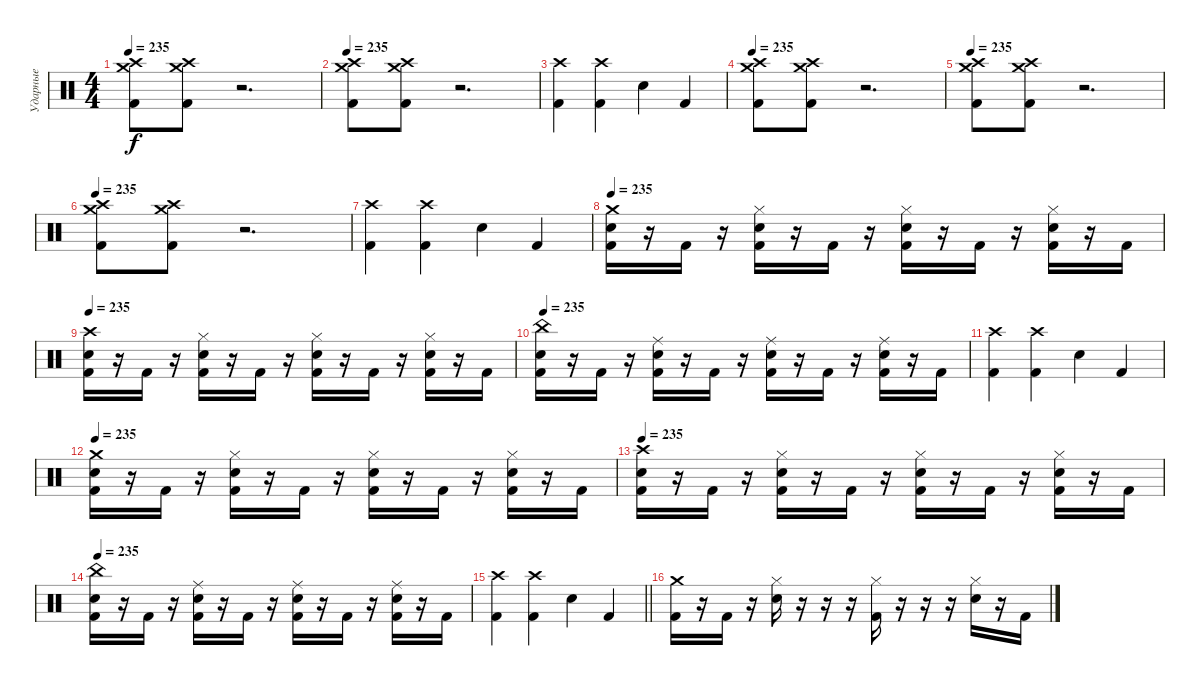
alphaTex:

\track ("Ударные" "Ударные") {instrument percussion}
\staff {score}
\articulation defaults
\ts (4 4)
\tempo 235
\clef neutral
\ks c
("Crash medium (hit)" "Crash high (hit)" "Kick (hit) 2").8{dy f} ("Crash medium (hit)" "Crash high (hit)" "Kick (hit) 2").8 r.2{d} |
\tempo 235
("Crash medium (hit)" "Crash high (hit)" "Kick (hit) 2").8 ("Crash medium (hit)" "Crash high (hit)" "Kick (hit) 2").8 r.2{d} |
("Crash high (hit)" "Kick (hit) 2").4 ("Crash high (hit)" "Kick (hit) 2").4 "Snare (hit) 2".4 "Kick (hit) 2".4 |
\tempo 235
("Crash medium (hit)" "Crash high (hit)" "Kick (hit) 2").8 ("Crash medium (hit)" "Crash high (hit)" "Kick (hit) 2").8 r.2{d} |
\tempo 235
("Crash medium (hit)" "Crash high (hit)" "Kick (hit) 2").8 ("Crash medium (hit)" "Crash high (hit)" "Kick (hit) 2").8 r.2{d} |
\tempo 235
("Crash medium (hit)" "Crash high (hit)" "Kick (hit) 2").8 ("Crash medium (hit)" "Crash high (hit)" "Kick (hit) 2").8 r.2{d} |
("Crash high (hit)" "Kick (hit) 2").4 ("Crash high (hit)" "Kick (hit) 2").4 "Snare (hit) 2".4 "Kick (hit) 2".4 |
\tempo 235
("Crash medium (hit)" "Snare (hit) 2" "Kick (hit) 2").16 r.16 "Kick (hit) 2".16 r.16 ("Hi-Hat (closed)" "Snare (hit) 2" "Kick (hit) 2").16 r.16 "Kick (hit) 2".16 r.16 ("Hi-Hat (closed)" "Snare (hit) 2" "Kick (hit) 2").16 r.16 "Kick (hit) 2".16 r.16 ("Hi-Hat (closed)" "Snare (hit) 2" "Kick (hit) 2").16 r.16 "Kick (hit) 2".16 |
\tempo 235
("Crash high (hit)" "Snare (hit) 2" "Kick (hit) 2").16 r.16 "Kick (hit) 2".16 r.16 ("Hi-Hat (closed)" "Snare (hit) 2" "Kick (hit) 2").16 r.16 "Kick (hit) 2".16 r.16 ("Hi-Hat (closed)" "Snare (hit) 2" "Kick (hit) 2").16 r.16 "Kick (hit) 2".16 r.16 ("Hi-Hat (closed)" "Snare (hit) 2" "Kick (hit) 2").16 r.16 "Kick (hit) 2".16 |
\tempo 235
("China (hit)" "Snare (hit) 2" "Kick (hit) 2").16 r.16 "Kick (hit) 2".16 r.16 ("Ride (middle)" "Snare (hit) 2" "Kick (hit) 2").16 r.16 "Kick (hit) 2".16 r.16 ("Ride (middle)" "Snare (hit) 2" "Kick (hit) 2").16 r.16 "Kick (hit) 2".16 r.16 ("Ride (middle)" "Snare (hit) 2" "Kick (hit) 2").16 r.16 "Kick (hit) 2".16 |
("Crash high (hit)" "Kick (hit) 2").4 ("Crash high (hit)" "Kick (hit) 2").4 "Snare (hit) 2".4 "Kick (hit) 2".4 |
\tempo 235
("Crash medium (hit)" "Snare (hit) 2" "Kick (hit) 2").16 r.16 "Kick (hit) 2".16 r.16 ("Hi-Hat (closed)" "Snare (hit) 2" "Kick (hit) 2").16 r.16 "Kick (hit) 2".16 r.16 ("Hi-Hat (closed)" "Snare (hit) 2" "Kick (hit) 2").16 r.16 "Kick (hit) 2".16 r.16 ("Hi-Hat (closed)" "Snare (hit) 2" "Kick (hit) 2").16 r.16 "Kick (hit) 2".16 |
\tempo 235
("Crash high (hit)" "Snare (hit) 2" "Kick (hit) 2").16 r.16 "Kick (hit) 2".16 r.16 ("Hi-Hat (closed)" "Snare (hit) 2" "Kick (hit) 2").16 r.16 "Kick (hit) 2".16 r.16 ("Hi-Hat (closed)" "Snare (hit) 2" "Kick (hit) 2").16 r.16 "Kick (hit) 2".16 r.16 ("Hi-Hat (closed)" "Snare (hit) 2" "Kick (hit) 2").16 r.16 "Kick (hit) 2".16 |
\tempo 235
("China (hit)" "Snare (hit) 2" "Kick (hit) 2").16 r.16 "Kick (hit) 2".16 r.16 ("Ride (middle)" "Snare (hit) 2" "Kick (hit) 2").16 r.16 "Kick (hit) 2".16 r.16 ("Ride (middle)" "Snare (hit) 2" "Kick (hit) 2").16 r.16 "Kick (hit) 2".16 r.16 ("Ride (middle)" "Snare (hit) 2" "Kick (hit) 2").16 r.16 "Kick (hit) 2".16 |
\barLineRight lightlight
("Crash high (hit)" "Kick (hit) 2").4 ("Crash high (hit)" "Kick (hit) 2").4 "Snare (hit) 2".4 "Kick (hit) 2".4 |
("Crash medium (hit)" "Kick (hit) 2").16 r.16 "Kick (hit) 2".16 r.16 ("Hi-Hat (closed)" "Snare (hit) 2").16 r.16 r.16 r.16 ("Hi-Hat (closed)" "Kick (hit) 2").16 r.16 r.16 r.16 ("Hi-Hat (closed)" "Snare (hit) 2").16 r.16 "Kick (hit) 2".16
